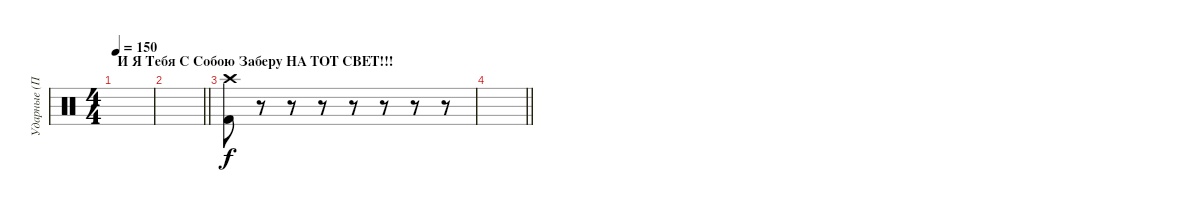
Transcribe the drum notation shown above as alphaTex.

\track ("Ударные (Поручик)" "Ударные (П") {instrument percussion}
\staff {score}
\articulation defaults
\ts (4 4)
\section ("" "И Я Тебя С Собою Заберу НА ТОТ СВЕТ!!!")
\tempo 150
\clef neutral
\ks c
|
\barLineRight lightlight
|
("Crash high (hit)" "Kick (hit) 2").8{dy f} r.8 r.8 r.8 r.8 r.8 r.8 r.8 |
\barLineRight lightlight
